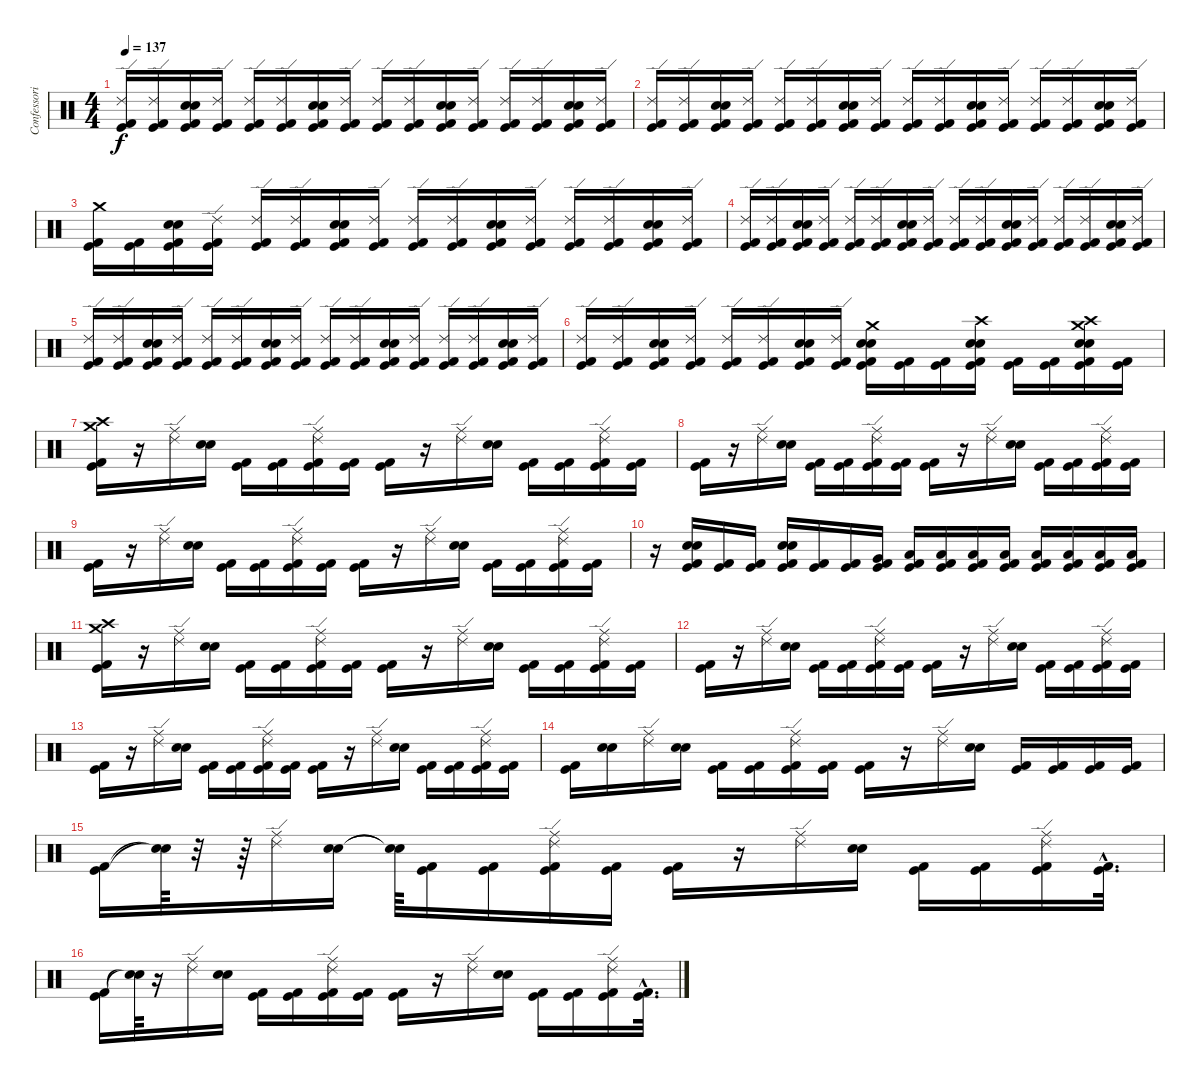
\track ("Confessori" "Confessori") {instrument percussion}
\staff {score}
\articulation defaults
\ts (4 4)
\tempo 137
\clef neutral
\ks c
("Ride (edge) 2" "Kick (hit) 2" "Kick (hit)").16{dy f} ("Ride (edge) 2" "Kick (hit) 2" "Kick (hit)").16 ("Electric Snare (hit)" "Snare (hit) 2" "Kick (hit) 2" "Kick (hit)").16 ("Ride (edge) 2" "Kick (hit) 2" "Kick (hit)").16 ("Ride (edge) 2" "Kick (hit) 2" "Kick (hit)").16 ("Ride (edge) 2" "Kick (hit) 2" "Kick (hit)").16 ("Electric Snare (hit)" "Snare (hit) 2" "Kick (hit) 2" "Kick (hit)").16 ("Ride (edge) 2" "Kick (hit) 2" "Kick (hit)").16 ("Ride (edge) 2" "Kick (hit) 2" "Kick (hit)").16 ("Ride (edge) 2" "Kick (hit) 2" "Kick (hit)").16 ("Electric Snare (hit)" "Snare (hit) 2" "Kick (hit) 2" "Kick (hit)").16 ("Ride (edge) 2" "Kick (hit) 2" "Kick (hit)").16 ("Ride (edge) 2" "Kick (hit) 2" "Kick (hit)").16 ("Ride (edge) 2" "Kick (hit) 2" "Kick (hit)").16 ("Electric Snare (hit)" "Snare (hit) 2" "Kick (hit) 2" "Kick (hit)").16 ("Ride (edge) 2" "Kick (hit) 2" "Kick (hit)").16 |
("Ride (edge) 2" "Kick (hit) 2" "Kick (hit)").16 ("Ride (edge) 2" "Kick (hit) 2" "Kick (hit)").16 ("Electric Snare (hit)" "Snare (hit) 2" "Kick (hit) 2" "Kick (hit)").16 ("Ride (edge) 2" "Kick (hit) 2" "Kick (hit)").16 ("Ride (edge) 2" "Kick (hit) 2" "Kick (hit)").16 ("Ride (edge) 2" "Kick (hit) 2" "Kick (hit)").16 ("Electric Snare (hit)" "Snare (hit) 2" "Kick (hit) 2" "Kick (hit)").16 ("Ride (edge) 2" "Kick (hit) 2" "Kick (hit)").16 ("Ride (edge) 2" "Kick (hit) 2" "Kick (hit)").16 ("Ride (edge) 2" "Kick (hit) 2" "Kick (hit)").16 ("Electric Snare (hit)" "Snare (hit) 2" "Kick (hit) 2" "Kick (hit)").16 ("Ride (edge) 2" "Kick (hit) 2" "Kick (hit)").16 ("Ride (edge) 2" "Kick (hit) 2" "Kick (hit)").16 ("Ride (edge) 2" "Kick (hit) 2" "Kick (hit)").16 ("Electric Snare (hit)" "Snare (hit) 2" "Kick (hit) 2" "Kick (hit)").16 ("Ride (edge) 2" "Kick (hit) 2" "Kick (hit)").16 |
("Crash medium (hit)" "Kick (hit) 2" "Kick (hit)").16 ("Kick (hit) 2" "Kick (hit)").16 ("Electric Snare (hit)" "Snare (hit) 2" "Kick (hit) 2" "Kick (hit)").16 ("Ride (edge) 2" "Kick (hit) 2" "Kick (hit)").16 ("Ride (edge) 2" "Kick (hit) 2" "Kick (hit)").16 ("Ride (edge) 2" "Kick (hit) 2" "Kick (hit)").16 ("Electric Snare (hit)" "Snare (hit) 2" "Kick (hit) 2" "Kick (hit)").16 ("Ride (edge) 2" "Kick (hit) 2" "Kick (hit)").16 ("Ride (edge) 2" "Kick (hit) 2" "Kick (hit)").16 ("Ride (edge) 2" "Kick (hit) 2" "Kick (hit)").16 ("Electric Snare (hit)" "Snare (hit) 2" "Kick (hit) 2" "Kick (hit)").16 ("Ride (edge) 2" "Kick (hit) 2" "Kick (hit)").16 ("Ride (edge) 2" "Kick (hit) 2" "Kick (hit)").16 ("Ride (edge) 2" "Kick (hit) 2" "Kick (hit)").16 ("Electric Snare (hit)" "Snare (hit) 2" "Kick (hit) 2" "Kick (hit)").16 ("Ride (edge) 2" "Kick (hit) 2" "Kick (hit)").16 |
("Ride (edge) 2" "Kick (hit) 2" "Kick (hit)").16 ("Ride (edge) 2" "Kick (hit) 2" "Kick (hit)").16 ("Electric Snare (hit)" "Snare (hit) 2" "Kick (hit) 2" "Kick (hit)").16 ("Ride (edge) 2" "Kick (hit) 2" "Kick (hit)").16 ("Ride (edge) 2" "Kick (hit) 2" "Kick (hit)").16 ("Ride (edge) 2" "Kick (hit) 2" "Kick (hit)").16 ("Electric Snare (hit)" "Snare (hit) 2" "Kick (hit) 2" "Kick (hit)").16 ("Ride (edge) 2" "Kick (hit) 2" "Kick (hit)").16 ("Ride (edge) 2" "Kick (hit) 2" "Kick (hit)").16 ("Ride (edge) 2" "Kick (hit) 2" "Kick (hit)").16 ("Electric Snare (hit)" "Snare (hit) 2" "Kick (hit) 2" "Kick (hit)").16 ("Ride (edge) 2" "Kick (hit) 2" "Kick (hit)").16 ("Ride (edge) 2" "Kick (hit) 2" "Kick (hit)").16 ("Ride (edge) 2" "Kick (hit) 2" "Kick (hit)").16 ("Electric Snare (hit)" "Snare (hit) 2" "Kick (hit) 2" "Kick (hit)").16 ("Ride (edge) 2" "Kick (hit) 2" "Kick (hit)").16 |
("Ride (edge) 2" "Kick (hit) 2" "Kick (hit)").16 ("Ride (edge) 2" "Kick (hit) 2" "Kick (hit)").16 ("Electric Snare (hit)" "Snare (hit) 2" "Kick (hit) 2" "Kick (hit)").16 ("Ride (edge) 2" "Kick (hit) 2" "Kick (hit)").16 ("Ride (edge) 2" "Kick (hit) 2" "Kick (hit)").16 ("Ride (edge) 2" "Kick (hit) 2" "Kick (hit)").16 ("Electric Snare (hit)" "Snare (hit) 2" "Kick (hit) 2" "Kick (hit)").16 ("Ride (edge) 2" "Kick (hit) 2" "Kick (hit)").16 ("Ride (edge) 2" "Kick (hit) 2" "Kick (hit)").16 ("Ride (edge) 2" "Kick (hit) 2" "Kick (hit)").16 ("Electric Snare (hit)" "Snare (hit) 2" "Kick (hit) 2" "Kick (hit)").16 ("Ride (edge) 2" "Kick (hit) 2" "Kick (hit)").16 ("Ride (edge) 2" "Kick (hit) 2" "Kick (hit)").16 ("Ride (edge) 2" "Kick (hit) 2" "Kick (hit)").16 ("Electric Snare (hit)" "Snare (hit) 2" "Kick (hit) 2" "Kick (hit)").16 ("Ride (edge) 2" "Kick (hit) 2" "Kick (hit)").16 |
("Ride (edge) 2" "Kick (hit) 2" "Kick (hit)").16 ("Ride (edge) 2" "Kick (hit) 2" "Kick (hit)").16 ("Electric Snare (hit)" "Snare (hit) 2" "Kick (hit) 2" "Kick (hit)").16 ("Ride (edge) 2" "Kick (hit) 2" "Kick (hit)").16 ("Ride (edge) 2" "Kick (hit) 2" "Kick (hit)").16 ("Ride (edge) 2" "Kick (hit) 2" "Kick (hit)").16 ("Electric Snare (hit)" "Snare (hit) 2" "Kick (hit) 2" "Kick (hit)").16 ("Ride (edge) 2" "Kick (hit) 2" "Kick (hit)").16 ("Crash medium (hit)" "Electric Snare (hit)" "Snare (hit) 2" "Kick (hit) 2" "Kick (hit)").16 ("Kick (hit) 2" "Kick (hit)").16 ("Kick (hit) 2" "Kick (hit)").16 ("Crash high (hit)" "Electric Snare (hit)" "Snare (hit) 2" "Kick (hit) 2" "Kick (hit)").16 ("Kick (hit) 2" "Kick (hit)").16 ("Kick (hit) 2" "Kick (hit)").16 ("Crash high (hit)" "Crash medium (hit)" "Electric Snare (hit)" "Snare (hit) 2" "Kick (hit) 2" "Kick (hit)").16 ("Kick (hit) 2" "Kick (hit)").16 |
("Crash high (hit)" "Crash medium (hit)" "Kick (hit) 2" "Kick (hit)").16 r.16 ("Ride (middle)" "Ride (edge) 2").16 ("Electric Snare (hit)" "Snare (hit) 2").16 ("Kick (hit) 2" "Kick (hit)").16 ("Kick (hit) 2" "Kick (hit)").16 ("Ride (middle)" "Ride (edge) 2" "Kick (hit) 2" "Kick (hit)").16 ("Kick (hit) 2" "Kick (hit)").16 ("Kick (hit) 2" "Kick (hit)").16 r.16 ("Ride (middle)" "Ride (edge) 2").16 ("Electric Snare (hit)" "Snare (hit) 2").16 ("Kick (hit) 2" "Kick (hit)").16 ("Kick (hit) 2" "Kick (hit)").16 ("Ride (middle)" "Ride (edge) 2" "Kick (hit) 2" "Kick (hit)").16 ("Kick (hit) 2" "Kick (hit)").16 |
("Kick (hit) 2" "Kick (hit)").16 r.16 ("Ride (middle)" "Ride (edge) 2").16 ("Electric Snare (hit)" "Snare (hit) 2").16 ("Kick (hit) 2" "Kick (hit)").16 ("Kick (hit) 2" "Kick (hit)").16 ("Ride (middle)" "Ride (edge) 2" "Kick (hit) 2" "Kick (hit)").16 ("Kick (hit) 2" "Kick (hit)").16 ("Kick (hit) 2" "Kick (hit)").16 r.16 ("Ride (middle)" "Ride (edge) 2").16 ("Electric Snare (hit)" "Snare (hit) 2").16 ("Kick (hit) 2" "Kick (hit)").16 ("Kick (hit) 2" "Kick (hit)").16 ("Ride (middle)" "Ride (edge) 2" "Kick (hit) 2" "Kick (hit)").16 ("Kick (hit) 2" "Kick (hit)").16 |
("Kick (hit) 2" "Kick (hit)").16 r.16 ("Ride (middle)" "Ride (edge) 2").16 ("Electric Snare (hit)" "Snare (hit) 2").16 ("Kick (hit) 2" "Kick (hit)").16 ("Kick (hit) 2" "Kick (hit)").16 ("Ride (middle)" "Ride (edge) 2" "Kick (hit) 2" "Kick (hit)").16 ("Kick (hit) 2" "Kick (hit)").16 ("Kick (hit) 2" "Kick (hit)").16 r.16 ("Ride (middle)" "Ride (edge) 2").16 ("Electric Snare (hit)" "Snare (hit) 2").16 ("Kick (hit) 2" "Kick (hit)").16 ("Kick (hit) 2" "Kick (hit)").16 ("Ride (middle)" "Ride (edge) 2" "Kick (hit) 2" "Kick (hit)").16 ("Kick (hit) 2" "Kick (hit)").16 |
r.16 ("Snare (hit) 2" "Electric Snare (hit)" "Kick (hit) 2" "Kick (hit)").16 ("Kick (hit) 2" "Kick (hit)").16 ("Kick (hit) 2" "Kick (hit)").16 ("Electric Snare (hit)" "Snare (hit) 2" "Kick (hit) 2" "Kick (hit)").16 ("Kick (hit) 2" "Kick (hit)").16 ("Kick (hit) 2" "Kick (hit)").16 ("Very Low Tom (hit)" "Kick (hit) 2" "Kick (hit)").16 ("Low Floor Tom (hit)" "Kick (hit) 2" "Kick (hit)").16 ("Low Floor Tom (hit)" "Kick (hit) 2" "Kick (hit)").16 ("Low Floor Tom (hit)" "Kick (hit) 2" "Kick (hit)").16 ("Low Floor Tom (hit)" "Kick (hit)" "Kick (hit) 2").16 ("Low Floor Tom (hit)" "Kick (hit)" "Kick (hit) 2").16 ("Low Floor Tom (hit)" "Kick (hit) 2" "Kick (hit)").16 ("Low Floor Tom (hit)" "Kick (hit) 2" "Kick (hit)").16 ("Low Floor Tom (hit)" "Kick (hit) 2" "Kick (hit)").16 |
("Crash high (hit)" "Crash medium (hit)" "Kick (hit) 2" "Kick (hit)").16 r.16 ("Ride (middle)" "Ride (edge) 2").16 ("Electric Snare (hit)" "Snare (hit) 2").16 ("Kick (hit) 2" "Kick (hit)").16 ("Kick (hit) 2" "Kick (hit)").16 ("Ride (middle)" "Ride (edge) 2" "Kick (hit) 2" "Kick (hit)").16 ("Kick (hit) 2" "Kick (hit)").16 ("Kick (hit) 2" "Kick (hit)").16 r.16 ("Ride (middle)" "Ride (edge) 2").16 ("Electric Snare (hit)" "Snare (hit) 2").16 ("Kick (hit) 2" "Kick (hit)").16 ("Kick (hit) 2" "Kick (hit)").16 ("Ride (middle)" "Ride (edge) 2" "Kick (hit) 2" "Kick (hit)").16 ("Kick (hit) 2" "Kick (hit)").16 |
("Kick (hit) 2" "Kick (hit)").16 r.16 ("Ride (middle)" "Ride (edge) 2").16 ("Electric Snare (hit)" "Snare (hit) 2").16 ("Kick (hit) 2" "Kick (hit)").16 ("Kick (hit) 2" "Kick (hit)").16 ("Ride (middle)" "Ride (edge) 2" "Kick (hit) 2" "Kick (hit)").16 ("Kick (hit) 2" "Kick (hit)").16 ("Kick (hit) 2" "Kick (hit)").16 r.16 ("Ride (middle)" "Ride (edge) 2").16 ("Electric Snare (hit)" "Snare (hit) 2").16 ("Kick (hit) 2" "Kick (hit)").16 ("Kick (hit) 2" "Kick (hit)").16 ("Ride (middle)" "Ride (edge) 2" "Kick (hit) 2" "Kick (hit)").16 ("Kick (hit) 2" "Kick (hit)").16 |
("Kick (hit) 2" "Kick (hit)").16 r.16 ("Ride (middle)" "Ride (edge) 2").16 ("Electric Snare (hit)" "Snare (hit) 2").16 ("Kick (hit) 2" "Kick (hit)").16 ("Kick (hit) 2" "Kick (hit)").16 ("Ride (middle)" "Ride (edge) 2" "Kick (hit) 2" "Kick (hit)").16 ("Kick (hit) 2" "Kick (hit)").16 ("Kick (hit) 2" "Kick (hit)").16 r.16 ("Ride (middle)" "Ride (edge) 2").16 ("Electric Snare (hit)" "Snare (hit) 2").16 ("Kick (hit) 2" "Kick (hit)").16 ("Kick (hit) 2" "Kick (hit)").16 ("Ride (middle)" "Ride (edge) 2" "Kick (hit) 2" "Kick (hit)").16 ("Kick (hit) 2" "Kick (hit)").16 |
("Kick (hit) 2" "Kick (hit)").16 ("Electric Snare (hit)" "Snare (hit) 2").16 ("Ride (middle)" "Ride (edge) 2").16 ("Electric Snare (hit)" "Snare (hit) 2").16 ("Kick (hit) 2" "Kick (hit)").16 ("Kick (hit) 2" "Kick (hit)").16 ("Ride (middle)" "Ride (edge) 2" "Kick (hit) 2" "Kick (hit)").16 ("Kick (hit) 2" "Kick (hit)").16 ("Kick (hit) 2" "Kick (hit)").16 r.16 ("Ride (middle)" "Ride (edge) 2").16 ("Electric Snare (hit)" "Snare (hit) 2").16 ("Kick (hit) 2" "Kick (hit)").16 ("Kick (hit) 2" "Kick (hit)").16 ("Kick (hit) 2" "Kick (hit)").16 ("Kick (hit) 2" "Kick (hit)").16 |
("Kick (hit) 2" "Kick (hit)").16 ("Snare (hit)"{t} "Snare (hit)"{t}).64 r.32 r.64 ("Ride (middle)" "Ride (edge) 2").16 ("Electric Snare (hit)" "Snare (hit) 2").16 ("Snare (hit)"{t} "Snare (hit)"{t}).64 ("Kick (hit) 2" "Kick (hit)").16 ("Kick (hit) 2" "Kick (hit)").16 ("Ride (middle)" "Ride (edge) 2" "Kick (hit) 2" "Kick (hit)").16 ("Kick (hit) 2" "Kick (hit)").16 ("Kick (hit) 2" "Kick (hit)").16 r.16 ("Ride (middle)" "Ride (edge) 2").16 ("Electric Snare (hit)" "Snare (hit) 2").16 ("Kick (hit) 2" "Kick (hit)").16 ("Kick (hit) 2" "Kick (hit)").16 ("Ride (middle)" "Ride (edge) 2" "Kick (hit) 2" "Kick (hit)").16 ("Kick (hit) 2"{hac} "Kick (hit)"{hac}).32{d} |
("Kick (hit) 2" "Kick (hit)").16 ("Snare (hit)"{t} "Snare (hit)"{t}).64 r.16 ("Ride (middle)" "Ride (edge) 2").16 ("Electric Snare (hit)" "Snare (hit) 2").16 ("Kick (hit) 2" "Kick (hit)").16 ("Kick (hit) 2" "Kick (hit)").16 ("Ride (middle)" "Ride (edge) 2" "Kick (hit) 2" "Kick (hit)").16 ("Kick (hit) 2" "Kick (hit)").16 ("Kick (hit) 2" "Kick (hit)").16 r.16 ("Ride (middle)" "Ride (edge) 2").16 ("Electric Snare (hit)" "Snare (hit) 2").16 ("Kick (hit) 2" "Kick (hit)").16 ("Kick (hit) 2" "Kick (hit)").16 ("Ride (middle)" "Ride (edge) 2" "Kick (hit) 2" "Kick (hit)").16 ("Kick (hit) 2"{hac} "Kick (hit)"{hac}).32{d}
